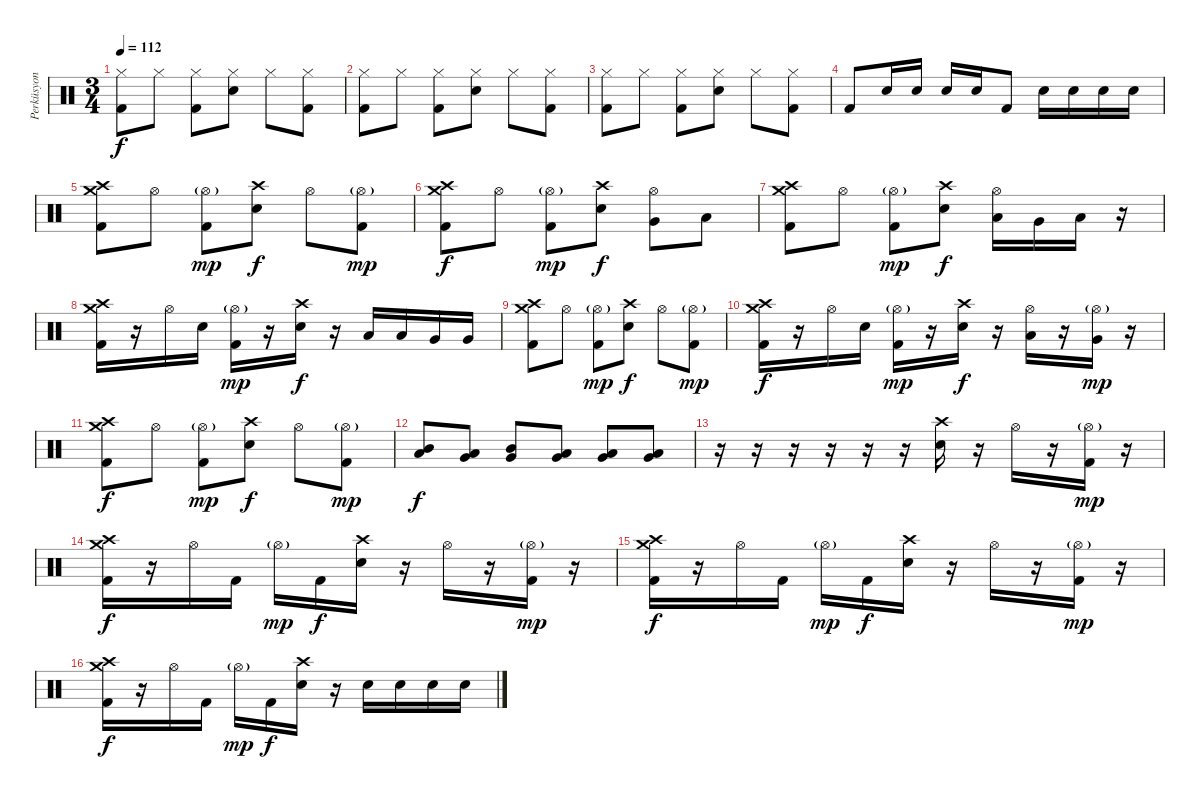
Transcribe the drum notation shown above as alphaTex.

\track ("Perküsyon" "Perküsyon") {instrument percussion}
\staff {score}
\articulation defaults
\ts (3 4)
\tempo 112
\clef neutral
\ks c
("Hi-Hat (closed)" "Kick (hit) 2").8{dy f} "Hi-Hat (closed)".8 ("Hi-Hat (closed)" "Kick (hit) 2").8 ("Hi-Hat (closed)" "Electric Snare (hit)").8 "Hi-Hat (closed)".8 ("Hi-Hat (closed)" "Kick (hit) 2").8 |
("Hi-Hat (closed)" "Kick (hit) 2").8 "Hi-Hat (closed)".8 ("Hi-Hat (closed)" "Kick (hit) 2").8 ("Hi-Hat (closed)" "Electric Snare (hit)").8 "Hi-Hat (closed)".8 ("Hi-Hat (closed)" "Kick (hit) 2").8 |
("Hi-Hat (closed)" "Kick (hit) 2").8 "Hi-Hat (closed)".8 ("Hi-Hat (closed)" "Kick (hit) 2").8 ("Hi-Hat (closed)" "Electric Snare (hit)").8 "Hi-Hat (closed)".8 ("Hi-Hat (closed)" "Kick (hit) 2").8 |
"Kick (hit) 2".8 "Electric Snare (hit)".16 "Electric Snare (hit)".16 "Electric Snare (hit)".16 "Electric Snare (hit)".16 "Kick (hit) 2".8 "Electric Snare (hit)".16 "Electric Snare (hit)".16 "Electric Snare (hit)".16 "Electric Snare (hit)".16 |
("Crash high (hit)" "Crash medium (hit)" "Kick (hit) 2").8 "Hi-Hat (open)".8 ("Hi-Hat (open)"{g} "Kick (hit) 2").8{dy mp} ("Crash high (hit)" "Electric Snare (hit)").8{dy f} "Hi-Hat (open)".8 ("Hi-Hat (open)"{g} "Kick (hit) 2").8{dy mp} |
("Crash high (hit)" "Crash medium (hit)" "Kick (hit) 2").8{dy f} "Hi-Hat (open)".8 ("Hi-Hat (open)"{g} "Kick (hit) 2").8{dy mp} ("Crash high (hit)" "Electric Snare (hit)").8{dy f} ("Hi-Hat (open)" "Very Low Tom (hit)").8 "Low Floor Tom (hit)".8 |
("Crash high (hit)" "Crash medium (hit)" "Kick (hit) 2").8 "Hi-Hat (open)".8 ("Hi-Hat (open)"{g} "Kick (hit) 2").8{dy mp} ("Crash high (hit)" "Electric Snare (hit)").8{dy f} ("Hi-Hat (open)" "Low Tom (hit)").16 "Very Low Tom (hit)".16 "Low Floor Tom (hit)".16 r.16 |
("Crash high (hit)" "Crash medium (hit)" "Kick (hit) 2").16 r.16 "Hi-Hat (open)".16 "Electric Snare (hit)".16 ("Hi-Hat (open)"{g} "Kick (hit) 2").16{dy mp} r.16 ("Crash high (hit)" "Electric Snare (hit)").16{dy f} r.16 "Low Tom (hit)".16 "Low Tom (hit)".16 "Very Low Tom (hit)".16 "Very Low Tom (hit)".16 |
("Crash high (hit)" "Crash medium (hit)" "Kick (hit) 2").8 "Hi-Hat (open)".8 ("Hi-Hat (open)"{g} "Kick (hit) 2").8{dy mp} ("Crash high (hit)" "Electric Snare (hit)").8{dy f} "Hi-Hat (open)".8 ("Hi-Hat (open)"{g} "Kick (hit) 2").8{dy mp} |
("Crash high (hit)" "Crash medium (hit)" "Kick (hit) 2").16{dy f} r.16 "Hi-Hat (open)".16 "Electric Snare (hit)".16 ("Hi-Hat (open)"{g} "Kick (hit) 2").16{dy mp} r.16 ("Crash high (hit)" "Electric Snare (hit)").16{dy f} r.16 ("Hi-Hat (open)" "Low Tom (hit)").16 r.16 ("Hi-Hat (open)"{g} "Very Low Tom (hit)").16{dy mp} r.16 |
("Crash high (hit)" "Crash medium (hit)" "Kick (hit) 2").8{dy f} "Hi-Hat (open)".8 ("Hi-Hat (open)"{g} "Kick (hit) 2").8{dy mp} ("Crash high (hit)" "Electric Snare (hit)").8{dy f} "Hi-Hat (open)".8 ("Hi-Hat (open)"{g} "Kick (hit) 2").8{dy mp} |
("Mid Tom (hit)" "Low Tom (hit)").8{dy f} ("Very Low Tom (hit)" "Low Tom (hit)").8 ("Mid Tom (hit)" "Very Low Tom (hit)").8 ("Low Tom (hit)" "Very Low Tom (hit)").8 ("Low Tom (hit)" "Very Low Tom (hit)").8 ("Low Tom (hit)" "Very Low Tom (hit)").8 |
r.16 r.16 r.16 r.16 r.16 r.16 ("Crash high (hit)" "Electric Snare (hit)").16 r.16 "Hi-Hat (open)".16 r.16 ("Hi-Hat (open)"{g} "Kick (hit) 2").16{dy mp} r.16 |
("Crash high (hit)" "Crash medium (hit)" "Kick (hit) 2").16{dy f} r.16 "Hi-Hat (open)".16 "Kick (hit) 2".16 "Hi-Hat (open)"{g}.16{dy mp} "Kick (hit) 2".16{dy f} ("Crash high (hit)" "Electric Snare (hit)").16 r.16 "Hi-Hat (open)".16 r.16 ("Hi-Hat (open)"{g} "Kick (hit) 2").16{dy mp} r.16 |
("Crash high (hit)" "Crash medium (hit)" "Kick (hit) 2").16{dy f} r.16 "Hi-Hat (open)".16 "Kick (hit) 2".16 "Hi-Hat (open)"{g}.16{dy mp} "Kick (hit) 2".16{dy f} ("Crash high (hit)" "Electric Snare (hit)").16 r.16 "Hi-Hat (open)".16 r.16 ("Hi-Hat (open)"{g} "Kick (hit) 2").16{dy mp} r.16 |
("Crash high (hit)" "Crash medium (hit)" "Kick (hit) 2").16{dy f} r.16 "Hi-Hat (open)".16 "Kick (hit) 2".16 "Hi-Hat (open)"{g}.16{dy mp} "Kick (hit) 2".16{dy f} ("Crash high (hit)" "Electric Snare (hit)").16 r.16 "Electric Snare (hit)".16 "Electric Snare (hit)".16 "Electric Snare (hit)".16 "Electric Snare (hit)".16
